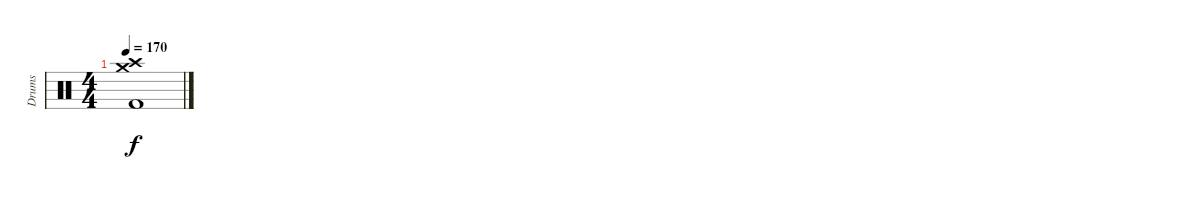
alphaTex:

\track ("Drums" "Drums") {instrument percussion}
\staff {score}
\articulation defaults
\ts (4 4)
\tempo 170
\clef neutral
\ks c
("Crash high (hit)" "Crash medium (hit)" "Kick (hit) 2").1{dy f}
